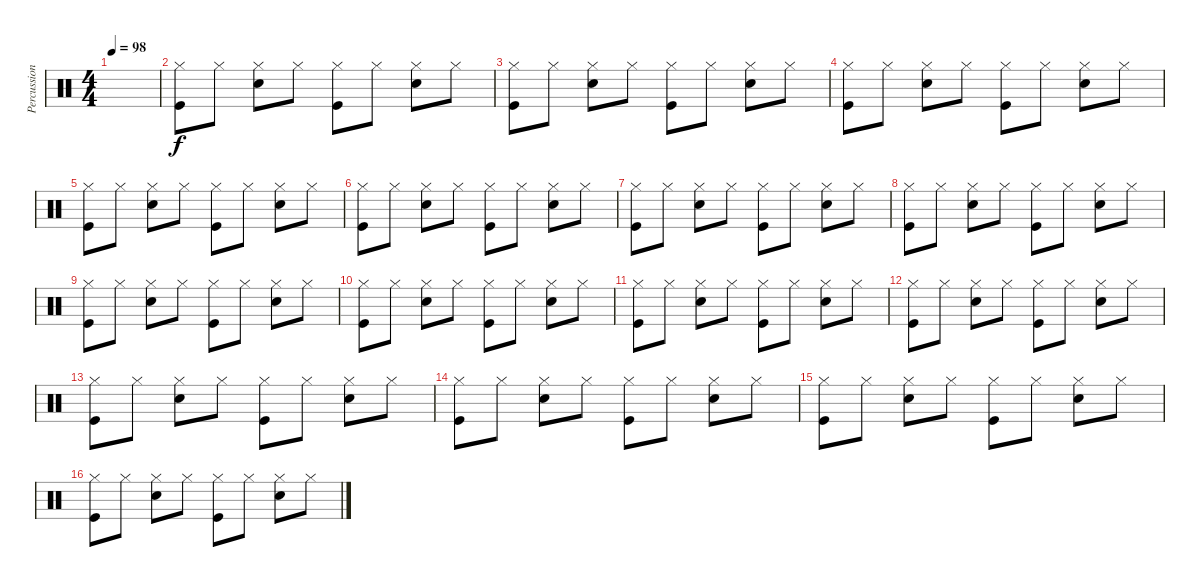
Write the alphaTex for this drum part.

\track ("Percussions" "Percussion") {instrument percussion}
\staff {score}
\articulation defaults
\ts (4 4)
\tempo 98
\clef neutral
\ks c
|
("Hi-Hat (closed)" "Kick (hit)").8 "Hi-Hat (closed)".8 ("Hi-Hat (closed)" "Snare (hit) 2").8 "Hi-Hat (closed)".8 ("Hi-Hat (closed)" "Kick (hit)").8 "Hi-Hat (closed)".8 ("Hi-Hat (closed)" "Snare (hit) 2").8 "Hi-Hat (closed)".8 |
("Hi-Hat (closed)" "Kick (hit)").8 "Hi-Hat (closed)".8 ("Hi-Hat (closed)" "Snare (hit) 2").8 "Hi-Hat (closed)".8 ("Hi-Hat (closed)" "Kick (hit)").8 "Hi-Hat (closed)".8 ("Hi-Hat (closed)" "Snare (hit) 2").8 "Hi-Hat (closed)".8 |
("Hi-Hat (closed)" "Kick (hit)").8 "Hi-Hat (closed)".8 ("Hi-Hat (closed)" "Snare (hit) 2").8 "Hi-Hat (closed)".8 ("Hi-Hat (closed)" "Kick (hit)").8 "Hi-Hat (closed)".8 ("Hi-Hat (closed)" "Snare (hit) 2").8 "Hi-Hat (closed)".8 |
("Hi-Hat (closed)" "Kick (hit)").8 "Hi-Hat (closed)".8 ("Hi-Hat (closed)" "Snare (hit) 2").8 "Hi-Hat (closed)".8 ("Hi-Hat (closed)" "Kick (hit)").8 "Hi-Hat (closed)".8 ("Hi-Hat (closed)" "Snare (hit) 2").8 "Hi-Hat (closed)".8 |
("Hi-Hat (closed)" "Kick (hit)").8 "Hi-Hat (closed)".8 ("Hi-Hat (closed)" "Snare (hit) 2").8 "Hi-Hat (closed)".8 ("Hi-Hat (closed)" "Kick (hit)").8 "Hi-Hat (closed)".8 ("Hi-Hat (closed)" "Snare (hit) 2").8 "Hi-Hat (closed)".8 |
("Hi-Hat (closed)" "Kick (hit)").8 "Hi-Hat (closed)".8 ("Hi-Hat (closed)" "Snare (hit) 2").8 "Hi-Hat (closed)".8 ("Hi-Hat (closed)" "Kick (hit)").8 "Hi-Hat (closed)".8 ("Hi-Hat (closed)" "Snare (hit) 2").8 "Hi-Hat (closed)".8 |
("Hi-Hat (closed)" "Kick (hit)").8 "Hi-Hat (closed)".8 ("Hi-Hat (closed)" "Snare (hit) 2").8 "Hi-Hat (closed)".8 ("Hi-Hat (closed)" "Kick (hit)").8 "Hi-Hat (closed)".8 ("Hi-Hat (closed)" "Snare (hit) 2").8 "Hi-Hat (closed)".8 |
("Hi-Hat (closed)" "Kick (hit)").8 "Hi-Hat (closed)".8 ("Hi-Hat (closed)" "Snare (hit) 2").8 "Hi-Hat (closed)".8 ("Hi-Hat (closed)" "Kick (hit)").8 "Hi-Hat (closed)".8 ("Hi-Hat (closed)" "Snare (hit) 2").8 "Hi-Hat (closed)".8 |
("Hi-Hat (closed)" "Kick (hit)").8 "Hi-Hat (closed)".8 ("Hi-Hat (closed)" "Snare (hit) 2").8 "Hi-Hat (closed)".8 ("Hi-Hat (closed)" "Kick (hit)").8 "Hi-Hat (closed)".8 ("Hi-Hat (closed)" "Snare (hit) 2").8 "Hi-Hat (closed)".8 |
("Hi-Hat (closed)" "Kick (hit)").8 "Hi-Hat (closed)".8 ("Hi-Hat (closed)" "Snare (hit) 2").8 "Hi-Hat (closed)".8 ("Hi-Hat (closed)" "Kick (hit)").8 "Hi-Hat (closed)".8 ("Hi-Hat (closed)" "Snare (hit) 2").8 "Hi-Hat (closed)".8 |
("Hi-Hat (closed)" "Kick (hit)").8 "Hi-Hat (closed)".8 ("Hi-Hat (closed)" "Snare (hit) 2").8 "Hi-Hat (closed)".8 ("Hi-Hat (closed)" "Kick (hit)").8 "Hi-Hat (closed)".8 ("Hi-Hat (closed)" "Snare (hit) 2").8 "Hi-Hat (closed)".8 |
("Hi-Hat (closed)" "Kick (hit)").8 "Hi-Hat (closed)".8 ("Hi-Hat (closed)" "Snare (hit) 2").8 "Hi-Hat (closed)".8 ("Hi-Hat (closed)" "Kick (hit)").8 "Hi-Hat (closed)".8 ("Hi-Hat (closed)" "Snare (hit) 2").8 "Hi-Hat (closed)".8 |
("Hi-Hat (closed)" "Kick (hit)").8 "Hi-Hat (closed)".8 ("Hi-Hat (closed)" "Snare (hit) 2").8 "Hi-Hat (closed)".8 ("Hi-Hat (closed)" "Kick (hit)").8 "Hi-Hat (closed)".8 ("Hi-Hat (closed)" "Snare (hit) 2").8 "Hi-Hat (closed)".8 |
("Hi-Hat (closed)" "Kick (hit)").8 "Hi-Hat (closed)".8 ("Hi-Hat (closed)" "Snare (hit) 2").8 "Hi-Hat (closed)".8 ("Hi-Hat (closed)" "Kick (hit)").8 "Hi-Hat (closed)".8 ("Hi-Hat (closed)" "Snare (hit) 2").8 "Hi-Hat (closed)".8 |
("Hi-Hat (closed)" "Kick (hit)").8 "Hi-Hat (closed)".8 ("Hi-Hat (closed)" "Snare (hit) 2").8 "Hi-Hat (closed)".8 ("Hi-Hat (closed)" "Kick (hit)").8 "Hi-Hat (closed)".8 ("Hi-Hat (closed)" "Snare (hit) 2").8 "Hi-Hat (closed)".8
